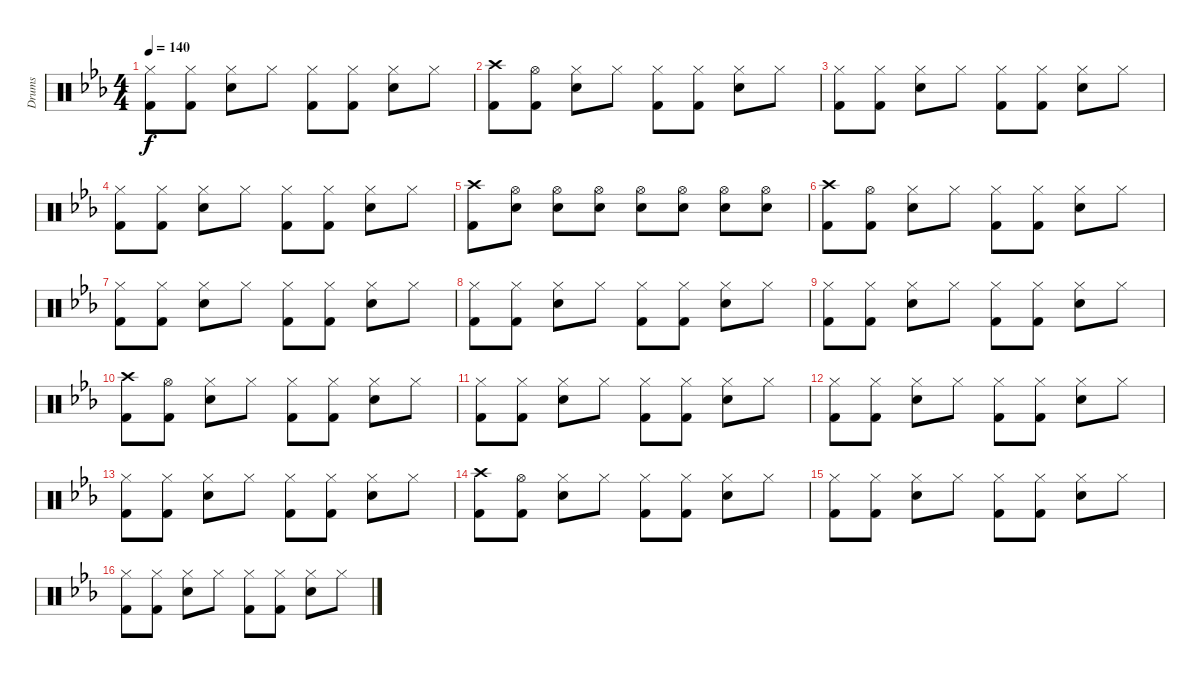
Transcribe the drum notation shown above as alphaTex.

\track ("Drums" "Drums") {instrument percussion}
\staff {score}
\articulation defaults
\ts (4 4)
\tempo 140
\clef neutral
\ks eb
("Hi-Hat (closed)" "Kick (hit) 2").8{dy f} ("Hi-Hat (closed)" "Kick (hit) 2").8 ("Hi-Hat (closed)" "Electric Snare (hit)").8 "Hi-Hat (closed)".8 ("Hi-Hat (closed)" "Kick (hit) 2").8 ("Hi-Hat (closed)" "Kick (hit) 2").8 ("Hi-Hat (closed)" "Electric Snare (hit)").8 "Hi-Hat (closed)".8 |
("Crash high (hit)" "Kick (hit) 2").8 ("Hi-Hat (open)" "Kick (hit) 2").8 ("Hi-Hat (closed)" "Electric Snare (hit)").8 "Hi-Hat (closed)".8 ("Hi-Hat (closed)" "Kick (hit) 2").8 ("Hi-Hat (closed)" "Kick (hit) 2").8 ("Hi-Hat (closed)" "Electric Snare (hit)").8 "Hi-Hat (closed)".8 |
("Hi-Hat (closed)" "Kick (hit) 2").8 ("Hi-Hat (closed)" "Kick (hit) 2").8 ("Hi-Hat (closed)" "Electric Snare (hit)").8 "Hi-Hat (closed)".8 ("Hi-Hat (closed)" "Kick (hit) 2").8 ("Hi-Hat (closed)" "Kick (hit) 2").8 ("Hi-Hat (closed)" "Electric Snare (hit)").8 "Hi-Hat (closed)".8 |
("Hi-Hat (closed)" "Kick (hit) 2").8 ("Hi-Hat (closed)" "Kick (hit) 2").8 ("Hi-Hat (closed)" "Electric Snare (hit)").8 "Hi-Hat (closed)".8 ("Hi-Hat (closed)" "Kick (hit) 2").8 ("Hi-Hat (closed)" "Kick (hit) 2").8 ("Hi-Hat (closed)" "Electric Snare (hit)").8 "Hi-Hat (closed)".8 |
("Crash high (hit)" "Kick (hit) 2").8 ("Hi-Hat (open)" "Electric Snare (hit)").8 ("Hi-Hat (open)" "Electric Snare (hit)").8 ("Hi-Hat (open)" "Electric Snare (hit)").8 ("Hi-Hat (open)" "Electric Snare (hit)").8 ("Hi-Hat (open)" "Electric Snare (hit)").8 ("Hi-Hat (open)" "Electric Snare (hit)").8 ("Hi-Hat (open)" "Electric Snare (hit)").8 |
("Crash high (hit)" "Kick (hit) 2").8 ("Hi-Hat (open)" "Kick (hit) 2").8 ("Hi-Hat (closed)" "Electric Snare (hit)").8 "Hi-Hat (closed)".8 ("Hi-Hat (closed)" "Kick (hit) 2").8 ("Hi-Hat (closed)" "Kick (hit) 2").8 ("Hi-Hat (closed)" "Electric Snare (hit)").8 "Hi-Hat (closed)".8 |
("Hi-Hat (closed)" "Kick (hit) 2").8 ("Hi-Hat (closed)" "Kick (hit) 2").8 ("Hi-Hat (closed)" "Electric Snare (hit)").8 "Hi-Hat (closed)".8 ("Hi-Hat (closed)" "Kick (hit) 2").8 ("Hi-Hat (closed)" "Kick (hit) 2").8 ("Hi-Hat (closed)" "Electric Snare (hit)").8 "Hi-Hat (closed)".8 |
("Hi-Hat (closed)" "Kick (hit) 2").8 ("Hi-Hat (closed)" "Kick (hit) 2").8 ("Hi-Hat (closed)" "Electric Snare (hit)").8 "Hi-Hat (closed)".8 ("Hi-Hat (closed)" "Kick (hit) 2").8 ("Hi-Hat (closed)" "Kick (hit) 2").8 ("Hi-Hat (closed)" "Electric Snare (hit)").8 "Hi-Hat (closed)".8 |
("Hi-Hat (closed)" "Kick (hit) 2").8 ("Hi-Hat (closed)" "Kick (hit) 2").8 ("Hi-Hat (closed)" "Electric Snare (hit)").8 "Hi-Hat (closed)".8 ("Hi-Hat (closed)" "Kick (hit) 2").8 ("Hi-Hat (closed)" "Kick (hit) 2").8 ("Hi-Hat (closed)" "Electric Snare (hit)").8 "Hi-Hat (closed)".8 |
("Crash high (hit)" "Kick (hit) 2").8 ("Hi-Hat (open)" "Kick (hit) 2").8 ("Hi-Hat (closed)" "Electric Snare (hit)").8 "Hi-Hat (closed)".8 ("Hi-Hat (closed)" "Kick (hit) 2").8 ("Hi-Hat (closed)" "Kick (hit) 2").8 ("Hi-Hat (closed)" "Electric Snare (hit)").8 "Hi-Hat (closed)".8 |
("Hi-Hat (closed)" "Kick (hit) 2").8 ("Hi-Hat (closed)" "Kick (hit) 2").8 ("Hi-Hat (closed)" "Electric Snare (hit)").8 "Hi-Hat (closed)".8 ("Hi-Hat (closed)" "Kick (hit) 2").8 ("Hi-Hat (closed)" "Kick (hit) 2").8 ("Hi-Hat (closed)" "Electric Snare (hit)").8 "Hi-Hat (closed)".8 |
("Hi-Hat (closed)" "Kick (hit) 2").8 ("Hi-Hat (closed)" "Kick (hit) 2").8 ("Hi-Hat (closed)" "Electric Snare (hit)").8 "Hi-Hat (closed)".8 ("Hi-Hat (closed)" "Kick (hit) 2").8 ("Hi-Hat (closed)" "Kick (hit) 2").8 ("Hi-Hat (closed)" "Electric Snare (hit)").8 "Hi-Hat (closed)".8 |
("Hi-Hat (closed)" "Kick (hit) 2").8 ("Hi-Hat (closed)" "Kick (hit) 2").8 ("Hi-Hat (closed)" "Electric Snare (hit)").8 "Hi-Hat (closed)".8 ("Hi-Hat (closed)" "Kick (hit) 2").8 ("Hi-Hat (closed)" "Kick (hit) 2").8 ("Hi-Hat (closed)" "Electric Snare (hit)").8 "Hi-Hat (closed)".8 |
("Crash high (hit)" "Kick (hit) 2").8 ("Hi-Hat (open)" "Kick (hit) 2").8 ("Hi-Hat (closed)" "Electric Snare (hit)").8 "Hi-Hat (closed)".8 ("Hi-Hat (closed)" "Kick (hit) 2").8 ("Hi-Hat (closed)" "Kick (hit) 2").8 ("Hi-Hat (closed)" "Electric Snare (hit)").8 "Hi-Hat (closed)".8 |
("Hi-Hat (closed)" "Kick (hit) 2").8 ("Hi-Hat (closed)" "Kick (hit) 2").8 ("Hi-Hat (closed)" "Electric Snare (hit)").8 "Hi-Hat (closed)".8 ("Hi-Hat (closed)" "Kick (hit) 2").8 ("Hi-Hat (closed)" "Kick (hit) 2").8 ("Hi-Hat (closed)" "Electric Snare (hit)").8 "Hi-Hat (closed)".8 |
("Hi-Hat (closed)" "Kick (hit) 2").8 ("Hi-Hat (closed)" "Kick (hit) 2").8 ("Hi-Hat (closed)" "Electric Snare (hit)").8 "Hi-Hat (closed)".8 ("Hi-Hat (closed)" "Kick (hit) 2").8 ("Hi-Hat (closed)" "Kick (hit) 2").8 ("Hi-Hat (closed)" "Electric Snare (hit)").8 "Hi-Hat (closed)".8
